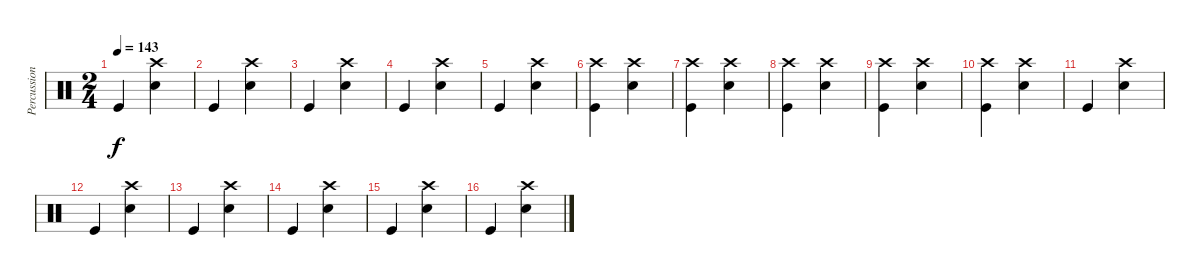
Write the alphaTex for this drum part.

\track ("Percussion" "Percussion") {instrument percussion}
\staff {score}
\articulation defaults
\ts (2 4)
\tempo 143
\clef neutral
\ks c "Kick (hit)".4{dy f}
("Snare (hit) 2" "Crash high (hit)").4 |
"Kick (hit)".4 ("Snare (hit) 2" "Crash high (hit)").4 |
"Kick (hit)".4 ("Snare (hit) 2" "Crash high (hit)").4 |
"Kick (hit)".4 ("Snare (hit) 2" "Crash high (hit)").4 |
"Kick (hit)".4 ("Snare (hit) 2" "Crash high (hit)").4 |
("Kick (hit)" "Crash high (hit)").4 ("Snare (hit) 2" "Crash high (hit)").4 |
("Kick (hit)" "Crash high (hit)").4 ("Snare (hit) 2" "Crash high (hit)").4 |
("Kick (hit)" "Crash high (hit)").4 ("Snare (hit) 2" "Crash high (hit)").4 |
("Kick (hit)" "Crash high (hit)").4 ("Snare (hit) 2" "Crash high (hit)").4 |
("Kick (hit)" "Crash high (hit)").4 ("Snare (hit) 2" "Crash high (hit)").4 |
"Kick (hit)".4 ("Snare (hit) 2" "Crash high (hit)").4 |
"Kick (hit)".4 ("Snare (hit) 2" "Crash high (hit)").4 |
"Kick (hit)".4 ("Snare (hit) 2" "Crash high (hit)").4 |
"Kick (hit)".4 ("Snare (hit) 2" "Crash high (hit)").4 |
"Kick (hit)".4 ("Snare (hit) 2" "Crash high (hit)").4 |
"Kick (hit)".4 ("Snare (hit) 2" "Crash high (hit)").4
